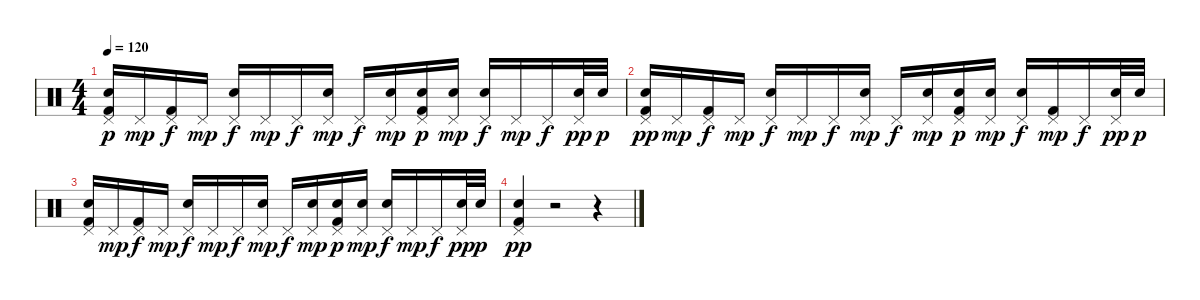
\track "" {instrument percussion}
\staff {score}
\articulation defaults
\ts (4 4)
\tempo 120
\clef neutral
\ks c
("Pedal Hi-Hat (hit)" "Electric Snare (hit)" "Kick (hit) 2").16{dy p} "Pedal Hi-Hat (hit)".16{dy mp} ("Pedal Hi-Hat (hit)" "Kick (hit) 2").16{dy f} "Pedal Hi-Hat (hit)".16{dy mp} ("Pedal Hi-Hat (hit)" "Electric Snare (hit)").16{dy f} "Pedal Hi-Hat (hit)".16{dy mp} "Pedal Hi-Hat (hit)".16{dy f} ("Pedal Hi-Hat (hit)" "Electric Snare (hit)").16{dy mp} "Pedal Hi-Hat (hit)".16{dy f} ("Pedal Hi-Hat (hit)" "Electric Snare (hit)").16{dy mp} ("Pedal Hi-Hat (hit)" "Electric Snare (hit)" "Kick (hit) 2").16{dy p} ("Pedal Hi-Hat (hit)" "Electric Snare (hit)").16{dy mp} ("Pedal Hi-Hat (hit)" "Electric Snare (hit)").16{dy f} "Pedal Hi-Hat (hit)".16{dy mp} "Pedal Hi-Hat (hit)".16{dy f} ("Pedal Hi-Hat (hit)" "Electric Snare (hit)").32{dy pp} "Electric Snare (hit)".32{dy p} |
("Pedal Hi-Hat (hit)" "Electric Snare (hit)" "Kick (hit) 2").16{dy pp} "Pedal Hi-Hat (hit)".16{dy mp} ("Pedal Hi-Hat (hit)" "Kick (hit) 2").16{dy f} "Pedal Hi-Hat (hit)".16{dy mp} ("Pedal Hi-Hat (hit)" "Electric Snare (hit)").16{dy f} "Pedal Hi-Hat (hit)".16{dy mp} "Pedal Hi-Hat (hit)".16{dy f} ("Pedal Hi-Hat (hit)" "Electric Snare (hit)").16{dy mp} "Pedal Hi-Hat (hit)".16{dy f} ("Pedal Hi-Hat (hit)" "Electric Snare (hit)").16{dy mp} ("Pedal Hi-Hat (hit)" "Electric Snare (hit)" "Kick (hit) 2").16{dy p} ("Pedal Hi-Hat (hit)" "Electric Snare (hit)").16{dy mp} ("Pedal Hi-Hat (hit)" "Electric Snare (hit)").16{dy f} ("Pedal Hi-Hat (hit)" "Kick (hit) 2").16{dy mp} "Pedal Hi-Hat (hit)".16{dy f} ("Pedal Hi-Hat (hit)" "Electric Snare (hit)").32{dy pp} "Electric Snare (hit)".32{dy p} |
("Pedal Hi-Hat (hit)" "Electric Snare (hit)" "Kick (hit) 2").16 "Pedal Hi-Hat (hit)".16{dy mp} ("Pedal Hi-Hat (hit)" "Kick (hit) 2").16{dy f} "Pedal Hi-Hat (hit)".16{dy mp} ("Pedal Hi-Hat (hit)" "Electric Snare (hit)").16{dy f} "Pedal Hi-Hat (hit)".16{dy mp} "Pedal Hi-Hat (hit)".16{dy f} ("Pedal Hi-Hat (hit)" "Electric Snare (hit)").16{dy mp} "Pedal Hi-Hat (hit)".16{dy f} ("Pedal Hi-Hat (hit)" "Electric Snare (hit)").16{dy mp} ("Pedal Hi-Hat (hit)" "Electric Snare (hit)" "Kick (hit) 2").16{dy p} ("Pedal Hi-Hat (hit)" "Electric Snare (hit)").16{dy mp} ("Pedal Hi-Hat (hit)" "Electric Snare (hit)").16{dy f} "Pedal Hi-Hat (hit)".16{dy mp} "Pedal Hi-Hat (hit)".16{dy f} ("Pedal Hi-Hat (hit)" "Electric Snare (hit)").32{dy pp} "Electric Snare (hit)".32{dy p} |
("Pedal Hi-Hat (hit)" "Electric Snare (hit)" "Kick (hit) 2").4{dy pp} r.2 r.4
